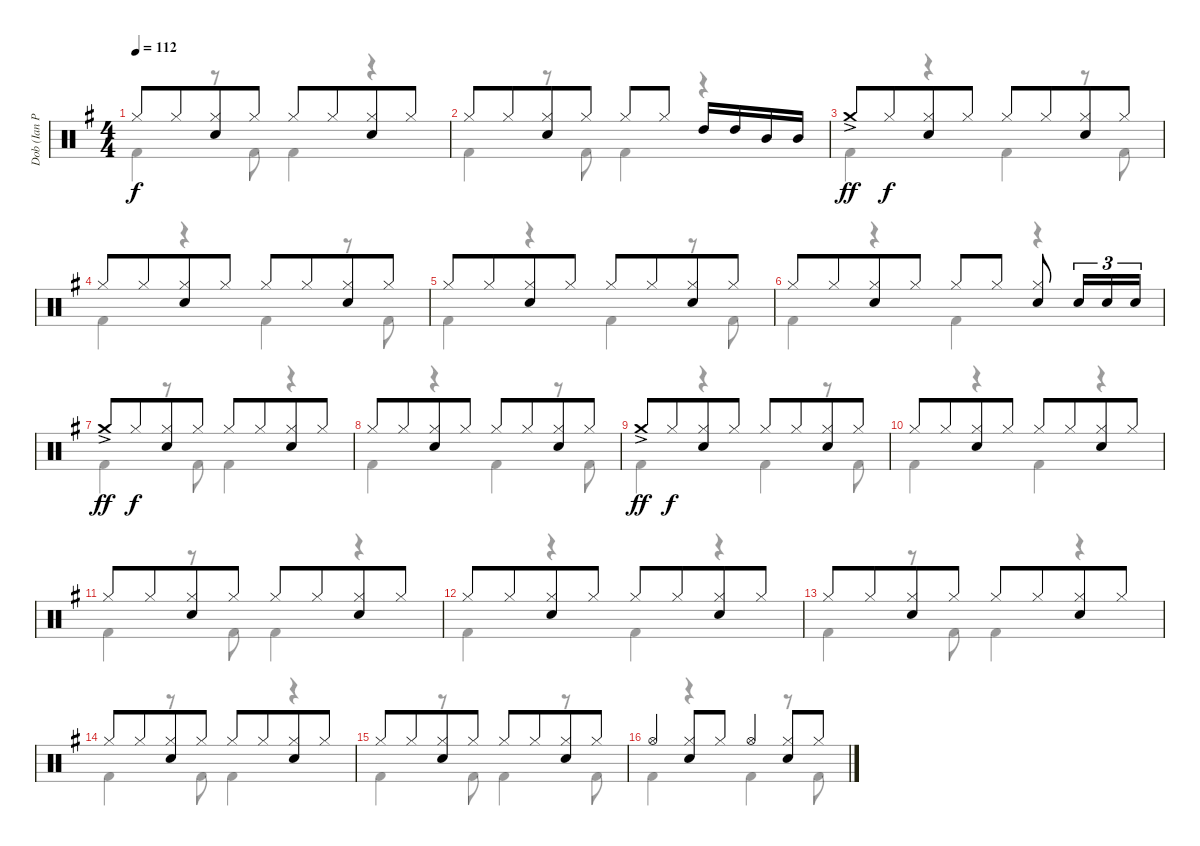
\track ("Dob (Ian Paice)" "Dob (Ian P") {instrument percussion}
\staff {score}
\articulation defaults
\voice
\ts (4 4)
\tempo 112
\clef neutral
\ks g "Hi-Hat (closed)".8{dy f} "Hi-Hat (closed)".8{beam merge}
("Hi-Hat (closed)" "Electric Snare (hit)").8 "Hi-Hat (closed)".8 "Hi-Hat (closed)".8 "Hi-Hat (closed)".8{beam merge} ("Hi-Hat (closed)" "Electric Snare (hit)").8 "Hi-Hat (closed)".8 |
"Hi-Hat (closed)".8 "Hi-Hat (closed)".8{beam merge} ("Hi-Hat (closed)" "Electric Snare (hit)").8 "Hi-Hat (closed)".8 "Hi-Hat (closed)".8 "Hi-Hat (closed)".8 "High Tom (hit)".16 "High Tom (hit)".16 "Mid Tom (hit)".16 "Mid Tom (hit)".16 |
"Crash medium (hit)"{ac}.8{dy ff} "Hi-Hat (closed)".8{dy f beam merge} ("Hi-Hat (closed)" "Electric Snare (hit)").8 "Hi-Hat (closed)".8 "Hi-Hat (closed)".8 "Hi-Hat (closed)".8{beam merge} ("Hi-Hat (closed)" "Electric Snare (hit)").8 "Hi-Hat (closed)".8 |
"Hi-Hat (closed)".8 "Hi-Hat (closed)".8{beam merge} ("Hi-Hat (closed)" "Electric Snare (hit)").8 "Hi-Hat (closed)".8 "Hi-Hat (closed)".8 "Hi-Hat (closed)".8{beam merge} ("Hi-Hat (closed)" "Electric Snare (hit)").8 "Hi-Hat (closed)".8 |
"Hi-Hat (closed)".8 "Hi-Hat (closed)".8{beam merge} ("Hi-Hat (closed)" "Electric Snare (hit)").8 "Hi-Hat (closed)".8 "Hi-Hat (closed)".8 "Hi-Hat (closed)".8{beam merge} ("Hi-Hat (closed)" "Electric Snare (hit)").8 "Hi-Hat (closed)".8 |
"Hi-Hat (closed)".8 "Hi-Hat (closed)".8{beam merge} ("Hi-Hat (closed)" "Electric Snare (hit)").8 "Hi-Hat (closed)".8 "Hi-Hat (closed)".8 "Hi-Hat (closed)".8 ("Hi-Hat (closed)" "Electric Snare (hit)").8 "Electric Snare (hit)".16{tu (3 2)} "Electric Snare (hit)".16{tu (3 2)} "Electric Snare (hit)".16{tu (3 2)} |
"Crash medium (hit)"{ac}.8{dy ff} "Hi-Hat (closed)".8{dy f beam merge} ("Hi-Hat (closed)" "Electric Snare (hit)").8 "Hi-Hat (closed)".8 "Hi-Hat (closed)".8 "Hi-Hat (closed)".8{beam merge} ("Hi-Hat (closed)" "Electric Snare (hit)").8 "Hi-Hat (closed)".8 |
"Hi-Hat (closed)".8 "Hi-Hat (closed)".8{beam merge} ("Hi-Hat (closed)" "Electric Snare (hit)").8 "Hi-Hat (closed)".8 "Hi-Hat (closed)".8 "Hi-Hat (closed)".8{beam merge} ("Hi-Hat (closed)" "Electric Snare (hit)").8 "Hi-Hat (closed)".8 |
"Crash medium (hit)"{ac}.8{dy ff} "Hi-Hat (closed)".8{dy f beam merge} ("Hi-Hat (closed)" "Electric Snare (hit)").8 "Hi-Hat (closed)".8 "Hi-Hat (closed)".8 "Hi-Hat (closed)".8{beam merge} ("Hi-Hat (closed)" "Electric Snare (hit)").8 "Hi-Hat (closed)".8 |
"Hi-Hat (closed)".8 "Hi-Hat (closed)".8{beam merge} ("Hi-Hat (closed)" "Electric Snare (hit)").8 "Hi-Hat (closed)".8 "Hi-Hat (closed)".8 "Hi-Hat (closed)".8{beam merge} ("Hi-Hat (closed)" "Electric Snare (hit)").8 "Hi-Hat (closed)".8 |
"Hi-Hat (closed)".8 "Hi-Hat (closed)".8{beam merge} ("Hi-Hat (closed)" "Electric Snare (hit)").8 "Hi-Hat (closed)".8 "Hi-Hat (closed)".8 "Hi-Hat (closed)".8{beam merge} ("Hi-Hat (closed)" "Electric Snare (hit)").8 "Hi-Hat (closed)".8 |
"Hi-Hat (closed)".8 "Hi-Hat (closed)".8{beam merge} ("Hi-Hat (closed)" "Electric Snare (hit)").8 "Hi-Hat (closed)".8 "Hi-Hat (closed)".8 "Hi-Hat (closed)".8{beam merge} ("Hi-Hat (closed)" "Electric Snare (hit)").8 "Hi-Hat (closed)".8 |
"Hi-Hat (closed)".8 "Hi-Hat (closed)".8{beam merge} ("Hi-Hat (closed)" "Electric Snare (hit)").8 "Hi-Hat (closed)".8 "Hi-Hat (closed)".8 "Hi-Hat (closed)".8{beam merge} ("Hi-Hat (closed)" "Electric Snare (hit)").8 "Hi-Hat (closed)".8 |
"Hi-Hat (closed)".8 "Hi-Hat (closed)".8{beam merge} ("Hi-Hat (closed)" "Electric Snare (hit)").8 "Hi-Hat (closed)".8 "Hi-Hat (closed)".8 "Hi-Hat (closed)".8{beam merge} ("Hi-Hat (closed)" "Electric Snare (hit)").8 "Hi-Hat (closed)".8 |
"Hi-Hat (closed)".8 "Hi-Hat (closed)".8{beam merge} ("Hi-Hat (closed)" "Electric Snare (hit)").8 "Hi-Hat (closed)".8 "Hi-Hat (closed)".8 "Hi-Hat (closed)".8{beam merge} ("Hi-Hat (closed)" "Electric Snare (hit)").8 "Hi-Hat (closed)".8 |
"Hi-Hat (open)".4 ("Hi-Hat (closed)" "Electric Snare (hit)").8 "Hi-Hat (closed)".8 "Hi-Hat (open)".4 ("Hi-Hat (closed)" "Electric Snare (hit)").8 "Hi-Hat (closed)".8
\voice
\clef neutral
\ottava regular
\simile none
\ks g "Kick (hit) 2".4{dy f}
r.8 "Kick (hit) 2".8 "Kick (hit) 2".4 r.4 |
"Kick (hit) 2".4 r.8 "Kick (hit) 2".8 "Kick (hit) 2".4 r.4 |
"Kick (hit) 2".4 r.4 "Kick (hit) 2".4 r.8 "Kick (hit) 2".8 |
"Kick (hit) 2".4 r.4 "Kick (hit) 2".4 r.8 "Kick (hit) 2".8 |
"Kick (hit) 2".4 r.4 "Kick (hit) 2".4 r.8 "Kick (hit) 2".8 |
"Kick (hit) 2".4 r.4 "Kick (hit) 2".4 r.4 |
"Kick (hit) 2".4 r.8 "Kick (hit) 2".8 "Kick (hit) 2".4 r.4 |
"Kick (hit) 2".4 r.4 "Kick (hit) 2".4 r.8 "Kick (hit) 2".8 |
"Kick (hit) 2".4 r.4 "Kick (hit) 2".4 r.8 "Kick (hit) 2".8 |
"Kick (hit) 2".4 r.4 "Kick (hit) 2".4 r.4 |
"Kick (hit) 2".4 r.8 "Kick (hit) 2".8 "Kick (hit) 2".4 r.4 |
"Kick (hit) 2".4 r.4 "Kick (hit) 2".4 r.4 |
"Kick (hit) 2".4 r.8 "Kick (hit) 2".8 "Kick (hit) 2".4 r.4 |
"Kick (hit) 2".4 r.8 "Kick (hit) 2".8 "Kick (hit) 2".4 r.4 |
"Kick (hit) 2".4 r.8 "Kick (hit) 2".8 "Kick (hit) 2".4 r.8 "Kick (hit) 2".8 |
"Kick (hit) 2".4 r.4 "Kick (hit) 2".4 r.8 "Kick (hit) 2".8
